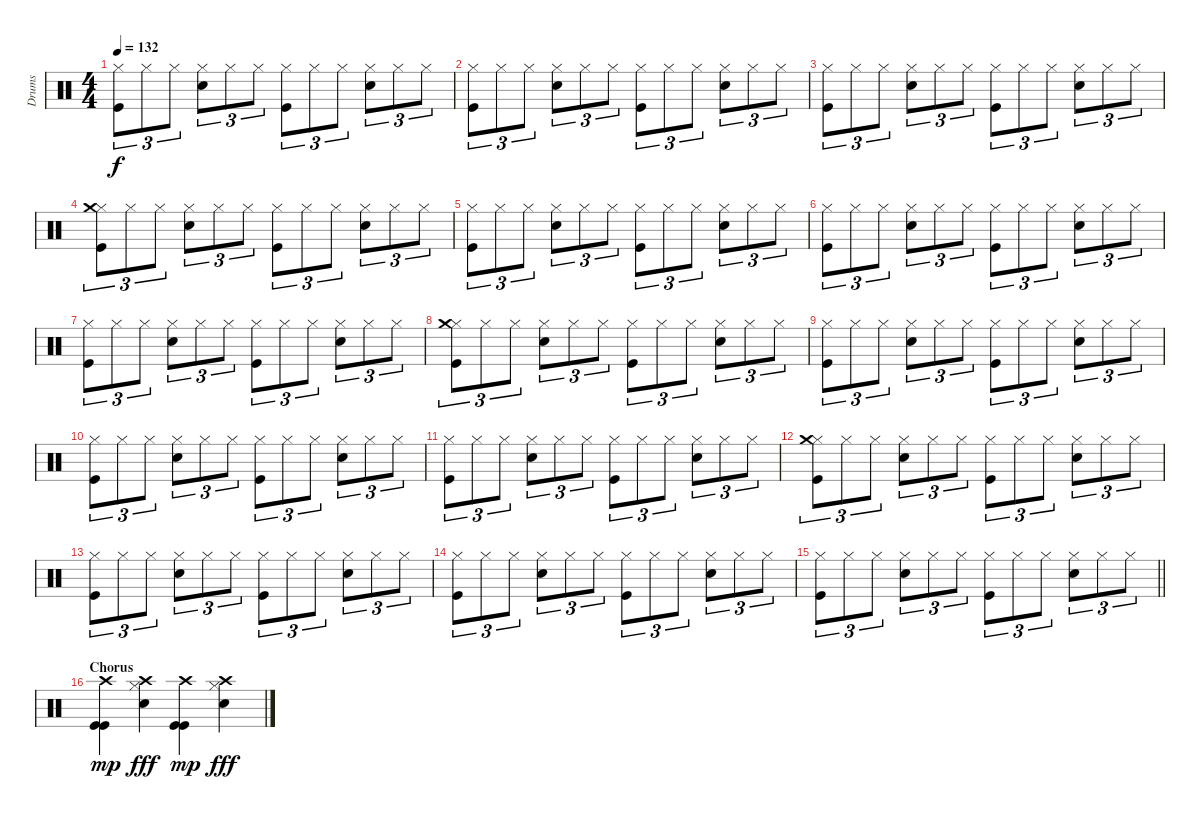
\track ("Drums" "Drums") {instrument percussion}
\staff {score}
\articulation defaults
\ts (4 4)
\section ("" "")
\tempo 132
\clef neutral
\ks c
("Hi-Hat (closed)" "Kick (hit)").8{tu (3 2) dy f} "Hi-Hat (closed)".8{tu (3 2)} "Hi-Hat (closed)".8{tu (3 2)} ("Hi-Hat (closed)" "Snare (hit) 2").8{tu (3 2)} "Hi-Hat (closed)".8{tu (3 2)} "Hi-Hat (closed)".8{tu (3 2)} ("Hi-Hat (closed)" "Kick (hit)").8{tu (3 2)} "Hi-Hat (closed)".8{tu (3 2)} "Hi-Hat (closed)".8{tu (3 2)} ("Hi-Hat (closed)" "Snare (hit) 2").8{tu (3 2)} "Hi-Hat (closed)".8{tu (3 2)} "Hi-Hat (closed)".8{tu (3 2)} |
("Hi-Hat (closed)" "Kick (hit)").8{tu (3 2)} "Hi-Hat (closed)".8{tu (3 2)} "Hi-Hat (closed)".8{tu (3 2)} ("Hi-Hat (closed)" "Snare (hit) 2").8{tu (3 2)} "Hi-Hat (closed)".8{tu (3 2)} "Hi-Hat (closed)".8{tu (3 2)} ("Hi-Hat (closed)" "Kick (hit)").8{tu (3 2)} "Hi-Hat (closed)".8{tu (3 2)} "Hi-Hat (closed)".8{tu (3 2)} ("Hi-Hat (closed)" "Snare (hit) 2").8{tu (3 2)} "Hi-Hat (closed)".8{tu (3 2)} "Hi-Hat (closed)".8{tu (3 2)} |
("Hi-Hat (closed)" "Kick (hit)").8{tu (3 2)} "Hi-Hat (closed)".8{tu (3 2)} "Hi-Hat (closed)".8{tu (3 2)} ("Hi-Hat (closed)" "Snare (hit) 2").8{tu (3 2)} "Hi-Hat (closed)".8{tu (3 2)} "Hi-Hat (closed)".8{tu (3 2)} ("Hi-Hat (closed)" "Kick (hit)").8{tu (3 2)} "Hi-Hat (closed)".8{tu (3 2)} "Hi-Hat (closed)".8{tu (3 2)} ("Hi-Hat (closed)" "Snare (hit) 2").8{tu (3 2)} "Hi-Hat (closed)".8{tu (3 2)} "Hi-Hat (closed)".8{tu (3 2)} |
("Hi-Hat (closed)" "Kick (hit)" "Crash medium (hit)").8{tu (3 2)} "Hi-Hat (closed)".8{tu (3 2)} "Hi-Hat (closed)".8{tu (3 2)} ("Hi-Hat (closed)" "Snare (hit) 2").8{tu (3 2)} "Hi-Hat (closed)".8{tu (3 2)} "Hi-Hat (closed)".8{tu (3 2)} ("Hi-Hat (closed)" "Kick (hit)").8{tu (3 2)} "Hi-Hat (closed)".8{tu (3 2)} "Hi-Hat (closed)".8{tu (3 2)} ("Hi-Hat (closed)" "Snare (hit) 2").8{tu (3 2)} "Hi-Hat (closed)".8{tu (3 2)} "Hi-Hat (closed)".8{tu (3 2)} |
("Hi-Hat (closed)" "Kick (hit)").8{tu (3 2)} "Hi-Hat (closed)".8{tu (3 2)} "Hi-Hat (closed)".8{tu (3 2)} ("Hi-Hat (closed)" "Snare (hit) 2").8{tu (3 2)} "Hi-Hat (closed)".8{tu (3 2)} "Hi-Hat (closed)".8{tu (3 2)} ("Hi-Hat (closed)" "Kick (hit)").8{tu (3 2)} "Hi-Hat (closed)".8{tu (3 2)} "Hi-Hat (closed)".8{tu (3 2)} ("Hi-Hat (closed)" "Snare (hit) 2").8{tu (3 2)} "Hi-Hat (closed)".8{tu (3 2)} "Hi-Hat (closed)".8{tu (3 2)} |
("Hi-Hat (closed)" "Kick (hit)").8{tu (3 2)} "Hi-Hat (closed)".8{tu (3 2)} "Hi-Hat (closed)".8{tu (3 2)} ("Hi-Hat (closed)" "Snare (hit) 2").8{tu (3 2)} "Hi-Hat (closed)".8{tu (3 2)} "Hi-Hat (closed)".8{tu (3 2)} ("Hi-Hat (closed)" "Kick (hit)").8{tu (3 2)} "Hi-Hat (closed)".8{tu (3 2)} "Hi-Hat (closed)".8{tu (3 2)} ("Hi-Hat (closed)" "Snare (hit) 2").8{tu (3 2)} "Hi-Hat (closed)".8{tu (3 2)} "Hi-Hat (closed)".8{tu (3 2)} |
("Hi-Hat (closed)" "Kick (hit)").8{tu (3 2)} "Hi-Hat (closed)".8{tu (3 2)} "Hi-Hat (closed)".8{tu (3 2)} ("Hi-Hat (closed)" "Snare (hit) 2").8{tu (3 2)} "Hi-Hat (closed)".8{tu (3 2)} "Hi-Hat (closed)".8{tu (3 2)} ("Hi-Hat (closed)" "Kick (hit)").8{tu (3 2)} "Hi-Hat (closed)".8{tu (3 2)} "Hi-Hat (closed)".8{tu (3 2)} ("Hi-Hat (closed)" "Snare (hit) 2").8{tu (3 2)} "Hi-Hat (closed)".8{tu (3 2)} "Hi-Hat (closed)".8{tu (3 2)} |
("Hi-Hat (closed)" "Kick (hit)" "Crash medium (hit)").8{tu (3 2)} "Hi-Hat (closed)".8{tu (3 2)} "Hi-Hat (closed)".8{tu (3 2)} ("Hi-Hat (closed)" "Snare (hit) 2").8{tu (3 2)} "Hi-Hat (closed)".8{tu (3 2)} "Hi-Hat (closed)".8{tu (3 2)} ("Hi-Hat (closed)" "Kick (hit)").8{tu (3 2)} "Hi-Hat (closed)".8{tu (3 2)} "Hi-Hat (closed)".8{tu (3 2)} ("Hi-Hat (closed)" "Snare (hit) 2").8{tu (3 2)} "Hi-Hat (closed)".8{tu (3 2)} "Hi-Hat (closed)".8{tu (3 2)} |
("Hi-Hat (closed)" "Kick (hit)").8{tu (3 2)} "Hi-Hat (closed)".8{tu (3 2)} "Hi-Hat (closed)".8{tu (3 2)} ("Hi-Hat (closed)" "Snare (hit) 2").8{tu (3 2)} "Hi-Hat (closed)".8{tu (3 2)} "Hi-Hat (closed)".8{tu (3 2)} ("Hi-Hat (closed)" "Kick (hit)").8{tu (3 2)} "Hi-Hat (closed)".8{tu (3 2)} "Hi-Hat (closed)".8{tu (3 2)} ("Hi-Hat (closed)" "Snare (hit) 2").8{tu (3 2)} "Hi-Hat (closed)".8{tu (3 2)} "Hi-Hat (closed)".8{tu (3 2)} |
("Hi-Hat (closed)" "Kick (hit)").8{tu (3 2)} "Hi-Hat (closed)".8{tu (3 2)} "Hi-Hat (closed)".8{tu (3 2)} ("Hi-Hat (closed)" "Snare (hit) 2").8{tu (3 2)} "Hi-Hat (closed)".8{tu (3 2)} "Hi-Hat (closed)".8{tu (3 2)} ("Hi-Hat (closed)" "Kick (hit)").8{tu (3 2)} "Hi-Hat (closed)".8{tu (3 2)} "Hi-Hat (closed)".8{tu (3 2)} ("Hi-Hat (closed)" "Snare (hit) 2").8{tu (3 2)} "Hi-Hat (closed)".8{tu (3 2)} "Hi-Hat (closed)".8{tu (3 2)} |
("Hi-Hat (closed)" "Kick (hit)").8{tu (3 2)} "Hi-Hat (closed)".8{tu (3 2)} "Hi-Hat (closed)".8{tu (3 2)} ("Hi-Hat (closed)" "Snare (hit) 2").8{tu (3 2)} "Hi-Hat (closed)".8{tu (3 2)} "Hi-Hat (closed)".8{tu (3 2)} ("Hi-Hat (closed)" "Kick (hit)").8{tu (3 2)} "Hi-Hat (closed)".8{tu (3 2)} "Hi-Hat (closed)".8{tu (3 2)} ("Hi-Hat (closed)" "Snare (hit) 2").8{tu (3 2)} "Hi-Hat (closed)".8{tu (3 2)} "Hi-Hat (closed)".8{tu (3 2)} |
("Hi-Hat (closed)" "Kick (hit)" "Crash medium (hit)").8{tu (3 2)} "Hi-Hat (closed)".8{tu (3 2)} "Hi-Hat (closed)".8{tu (3 2)} ("Hi-Hat (closed)" "Snare (hit) 2").8{tu (3 2)} "Hi-Hat (closed)".8{tu (3 2)} "Hi-Hat (closed)".8{tu (3 2)} ("Hi-Hat (closed)" "Kick (hit)").8{tu (3 2)} "Hi-Hat (closed)".8{tu (3 2)} "Hi-Hat (closed)".8{tu (3 2)} ("Hi-Hat (closed)" "Snare (hit) 2").8{tu (3 2)} "Hi-Hat (closed)".8{tu (3 2)} "Hi-Hat (closed)".8{tu (3 2)} |
("Hi-Hat (closed)" "Kick (hit)").8{tu (3 2)} "Hi-Hat (closed)".8{tu (3 2)} "Hi-Hat (closed)".8{tu (3 2)} ("Hi-Hat (closed)" "Snare (hit) 2").8{tu (3 2)} "Hi-Hat (closed)".8{tu (3 2)} "Hi-Hat (closed)".8{tu (3 2)} ("Hi-Hat (closed)" "Kick (hit)").8{tu (3 2)} "Hi-Hat (closed)".8{tu (3 2)} "Hi-Hat (closed)".8{tu (3 2)} ("Hi-Hat (closed)" "Snare (hit) 2").8{tu (3 2)} "Hi-Hat (closed)".8{tu (3 2)} "Hi-Hat (closed)".8{tu (3 2)} |
("Hi-Hat (closed)" "Kick (hit)").8{tu (3 2)} "Hi-Hat (closed)".8{tu (3 2)} "Hi-Hat (closed)".8{tu (3 2)} ("Hi-Hat (closed)" "Snare (hit) 2").8{tu (3 2)} "Hi-Hat (closed)".8{tu (3 2)} "Hi-Hat (closed)".8{tu (3 2)} ("Hi-Hat (closed)" "Kick (hit)").8{tu (3 2)} "Hi-Hat (closed)".8{tu (3 2)} "Hi-Hat (closed)".8{tu (3 2)} ("Hi-Hat (closed)" "Snare (hit) 2").8{tu (3 2)} "Hi-Hat (closed)".8{tu (3 2)} "Hi-Hat (closed)".8{tu (3 2)} |
\barLineRight lightlight
("Hi-Hat (closed)" "Kick (hit)").8{tu (3 2)} "Hi-Hat (closed)".8{tu (3 2)} "Hi-Hat (closed)".8{tu (3 2)} ("Hi-Hat (closed)" "Snare (hit) 2").8{tu (3 2)} "Hi-Hat (closed)".8{tu (3 2)} "Hi-Hat (closed)".8{tu (3 2)} ("Hi-Hat (closed)" "Kick (hit)").8{tu (3 2)} "Hi-Hat (closed)".8{tu (3 2)} "Hi-Hat (closed)".8{tu (3 2)} ("Hi-Hat (closed)" "Snare (hit) 2").8{tu (3 2)} "Hi-Hat (closed)".8{tu (3 2)} "Hi-Hat (closed)".8{tu (3 2)} |
\section ("" "Chorus")
("Kick (hit)" "Kick (hit)" "Crash high (hit)").4{dy mp} ("Hi-Hat (closed)" "Crash high (hit)" "Snare (hit) 2").4{dy fff} ("Kick (hit)" "Kick (hit)" "Crash high (hit)").4{dy mp} ("Hi-Hat (closed)" "Crash high (hit)" "Snare (hit) 2").4{dy fff}
